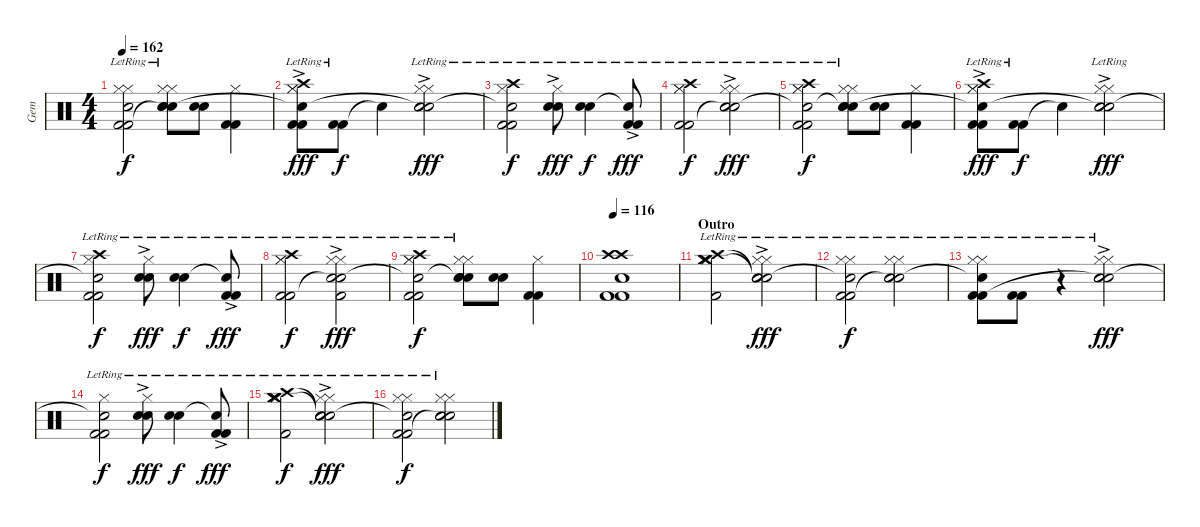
\track ("Gem" "Gem") {instrument percussion}
\staff {score}
\articulation defaults
\ts (4 4)
\tempo 162
\clef neutral
\ks c
("Hi-Hat (closed)"{lr} "Hi-Hat (closed)"{lr} "Kick (hit) 2" "Snare (hit)"{t} "Kick (hit) 2"{lr}).2{dy f} ("Hi-Hat (closed)"{lr} "Hi-Hat (closed)"{lr} "Snare (hit) 2" "Snare (hit) 2"{lr} "Snare (hit)"{t}).8 ("Snare (hit) 2" "Snare (hit) 2").8 ("Hi-Hat (closed)" "Kick (hit) 2" "Kick (hit) 2").4 |
("Hi-Hat (closed)"{lr} "Hi-Hat (closed)"{lr} "Crash high (hit)"{ac lr} "Kick (hit) 2" "Snare (hit)"{t} "Kick (hit) 2"{lr}).8{dy fff} ("Kick (hit) 2" "Kick (hit) 2"{lr}).8{dy f} "Snare (hit)"{t}.4 ("Hi-Hat (closed)"{lr} "Hi-Hat (closed)"{lr} "Snare (hit) 2" "Snare (hit) 2"{ac lr} "Snare (hit)"{t}).2{dy fff} |
("Hi-Hat (closed)"{lr} "Crash high (hit)" "Kick (hit) 2" "Snare (hit)"{t} "Kick (hit) 2"{lr}).2{dy f} ("Hi-Hat (closed)"{lr} "Snare (hit) 2" "Snare (hit) 2"{ac lr}).8{dy fff} ("Snare (hit) 2" "Snare (hit) 2"{lr}).4{dy f} ("Kick (hit) 2" "Snare (hit)"{t} "Kick (hit) 2"{ac lr}).8{dy fff} |
("Hi-Hat (closed)"{lr} "Hi-Hat (closed)"{lr} "Crash high (hit)" "Kick (hit) 2" "Kick (hit) 2"{lr}).2{dy f} ("Hi-Hat (closed)"{lr} "Hi-Hat (closed)"{lr} "Snare (hit) 2" "Snare (hit) 2"{ac lr} "Snare (hit)"{t}).2{dy fff} |
("Hi-Hat (closed)"{lr} "Hi-Hat (closed)"{lr} "Crash high (hit)" "Kick (hit) 2" "Snare (hit)"{t} "Kick (hit) 2"{lr}).2{dy f} ("Hi-Hat (closed)"{lr} "Hi-Hat (closed)"{lr} "Snare (hit) 2" "Snare (hit) 2"{lr} "Snare (hit)"{t}).8 ("Snare (hit) 2" "Snare (hit) 2").8 ("Hi-Hat (closed)" "Kick (hit) 2" "Kick (hit) 2").4 |
("Hi-Hat (closed)"{lr} "Hi-Hat (closed)"{lr} "Crash high (hit)"{ac lr} "Kick (hit) 2" "Snare (hit)"{t} "Kick (hit) 2"{lr}).8{dy fff} ("Kick (hit) 2" "Kick (hit) 2"{lr}).8{dy f} "Snare (hit)"{t}.4 ("Hi-Hat (closed)"{lr} "Hi-Hat (closed)"{lr} "Snare (hit) 2" "Snare (hit) 2"{ac lr} "Snare (hit)"{t}).2{dy fff} |
("Hi-Hat (closed)"{lr} "Crash high (hit)" "Kick (hit) 2" "Snare (hit)"{t} "Kick (hit) 2"{lr}).2{dy f} ("Hi-Hat (closed)"{lr} "Snare (hit) 2" "Snare (hit) 2"{ac lr}).8{dy fff} ("Snare (hit) 2" "Snare (hit) 2"{lr}).4{dy f} ("Kick (hit) 2" "Snare (hit)"{t} "Kick (hit) 2"{ac lr}).8{dy fff} |
("Hi-Hat (closed)"{lr} "Hi-Hat (closed)"{lr} "Crash high (hit)" "Kick (hit) 2" "Kick (hit) 2"{lr}).2{dy f} ("Hi-Hat (closed)"{lr} "Hi-Hat (closed)"{lr} "Kick (hit) 2" "Snare (hit) 2"{ac lr} "Snare (hit)"{t}).2{dy fff} |
("Hi-Hat (closed)"{lr} "Hi-Hat (closed)"{lr} "Crash high (hit)" "Kick (hit) 2" "Snare (hit)"{t} "Kick (hit) 2"{lr}).2{dy f} ("Hi-Hat (closed)"{lr} "Hi-Hat (closed)"{lr} "Snare (hit) 2" "Snare (hit) 2"{lr} "Snare (hit)"{t}).8 ("Snare (hit) 2" "Snare (hit) 2").8 ("Hi-Hat (closed)" "Kick (hit) 2" "Kick (hit) 2").4 |
\tempo 116
("Crash high (hit)" "Snare (hit) 2" "Kick (hit) 2" "Kick (hit) 2" "Crash high (hit)").1 |
\section ("" "Outro")
("Hi-Hat (closed)"{lr} "Hi-Hat (closed)"{lr} "Crash medium (hit)"{lr} "Crash medium (hit)"{lr} "Kick (hit) 2"{lr} "Crash high (hit)"{lr}).2 ("Hi-Hat (closed)"{lr} "Hi-Hat (closed)"{lr} "Snare (hit)"{t} "Snare (hit) 2" "Snare (hit) 2"{ac lr} "Snare (hit)"{t}).2{dy fff} |
("Hi-Hat (closed)"{lr} "Hi-Hat (closed)"{lr} "Kick (hit) 2" "Snare (hit)"{t} "Kick (hit) 2"{lr}).2{dy f} ("Hi-Hat (closed)"{lr} "Hi-Hat (closed)"{lr} "Snare (hit) 2" "Snare (hit) 2"{lr} "Snare (hit)"{t}).2 |
("Hi-Hat (closed)"{lr} "Hi-Hat (closed)"{lr} "Kick (hit) 2" "Snare (hit)"{t} "Kick (hit) 2"{lr}).8 ("Kick (hit) 2" "Kick (hit) 2"{lr}).8 r.4 ("Hi-Hat (closed)"{lr} "Hi-Hat (closed)"{lr} "Snare (hit) 2" "Snare (hit) 2"{ac lr} "Snare (hit)"{t}).2{dy fff} |
("Hi-Hat (closed)"{lr} "Kick (hit) 2" "Snare (hit)"{t} "Kick (hit) 2"{lr}).2{dy f} ("Hi-Hat (closed)"{lr} "Snare (hit) 2" "Snare (hit) 2"{ac lr}).8{dy fff} ("Snare (hit) 2" "Snare (hit) 2"{lr}).4{dy f} ("Kick (hit) 2" "Snare (hit)"{t} "Kick (hit) 2"{ac lr}).8{dy fff} |
("Hi-Hat (closed)"{lr} "Hi-Hat (closed)"{lr} "Crash medium (hit)"{lr} "Crash medium (hit)"{lr} "Kick (hit) 2"{lr} "Crash high (hit)"{lr}).2{dy f} ("Hi-Hat (closed)"{lr} "Hi-Hat (closed)"{lr} "Snare (hit)"{t} "Snare (hit) 2" "Snare (hit) 2"{ac lr} "Snare (hit)"{t}).2{dy fff} |
("Hi-Hat (closed)"{lr} "Hi-Hat (closed)"{lr} "Kick (hit) 2" "Snare (hit)"{t} "Kick (hit) 2"{lr}).2{dy f} ("Hi-Hat (closed)"{lr} "Hi-Hat (closed)"{lr} "Snare (hit) 2" "Snare (hit) 2"{lr} "Snare (hit)"{t}).2
